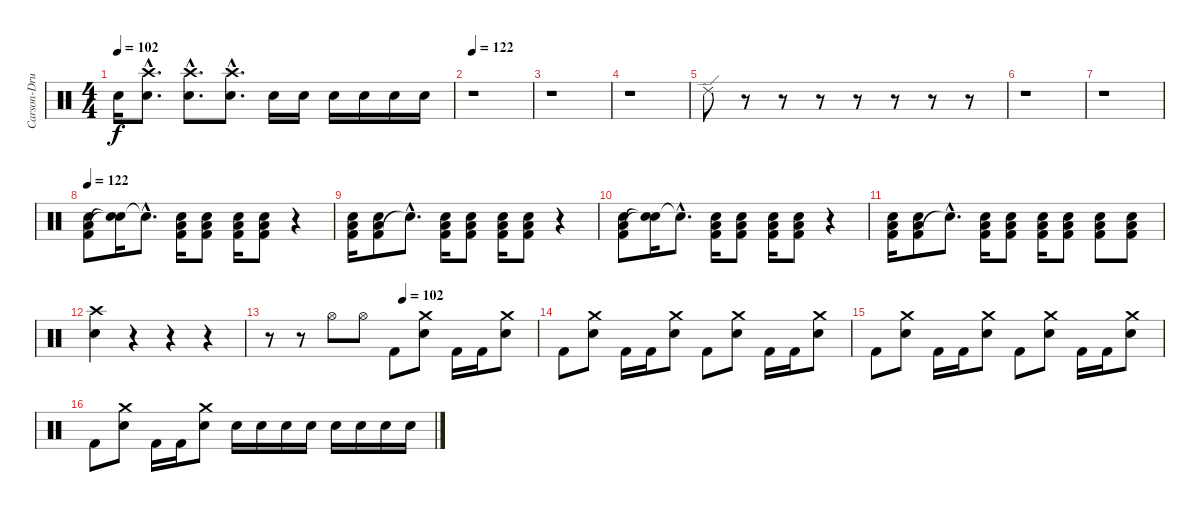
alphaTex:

\track ("Carson-Drums" "Carson-Dru") {instrument percussion}
\staff {score}
\articulation defaults
\ts (4 4)
\tempo 102
\clef neutral
\ks c "Snare (hit) 2".16{dy f}
("Crash high (hit)"{hac} "Snare (hit) 2"{hac}).8{d} ("Crash high (hit)"{hac} "Snare (hit) 2"{hac}).8{d} ("Crash high (hit)"{hac} "Snare (hit) 2"{hac}).8{d} "Snare (hit) 2".16 "Snare (hit) 2".16 "Snare (hit) 2".16 "Snare (hit) 2".16 "Snare (hit) 2".16 "Snare (hit) 2".16 |
\tempo 122
r.1 |
r.1 |
r.1 |
"Ride (edge) 2".8 r.8 r.8 r.8 r.8 r.8 r.8 r.8 |
r.1 |
r.1 |
\tempo 122
("Kick (hit) 2" "Low Floor Tom (hit)" "Snare (hit) 2").8 ("Snare (hit)"{t} "Snare (hit)"{t}).16 "Snare (hit)"{hac t}.8{d} ("Kick (hit) 2" "Low Floor Tom (hit)" "Snare (hit) 2").16 ("Kick (hit) 2" "Low Floor Tom (hit)" "Snare (hit) 2").8 ("Kick (hit) 2" "Low Floor Tom (hit)" "Snare (hit) 2").16 ("Kick (hit) 2" "Low Floor Tom (hit)" "Snare (hit) 2").8 r.4 |
("Kick (hit) 2" "Low Floor Tom (hit)" "Snare (hit) 2").16 ("Kick (hit) 2" "Low Floor Tom (hit)" "Snare (hit) 2").8 "Snare (hit)"{hac t}.8{d} ("Kick (hit) 2" "Low Floor Tom (hit)" "Snare (hit) 2").16 ("Kick (hit) 2" "Low Floor Tom (hit)" "Snare (hit) 2").8 ("Kick (hit) 2" "Low Floor Tom (hit)" "Snare (hit) 2").16 ("Kick (hit) 2" "Low Floor Tom (hit)" "Snare (hit) 2").8 r.4 |
("Kick (hit) 2" "Low Floor Tom (hit)" "Snare (hit) 2").8 ("Snare (hit)"{t} "Snare (hit)"{t}).16 "Snare (hit)"{hac t}.8{d} ("Kick (hit) 2" "Low Floor Tom (hit)" "Snare (hit) 2").16 ("Kick (hit) 2" "Low Floor Tom (hit)" "Snare (hit) 2").8 ("Kick (hit) 2" "Low Floor Tom (hit)" "Snare (hit) 2").16 ("Kick (hit) 2" "Low Floor Tom (hit)" "Snare (hit) 2").8 r.4 |
("Kick (hit) 2" "Low Floor Tom (hit)" "Snare (hit) 2").16 ("Kick (hit) 2" "Low Floor Tom (hit)" "Snare (hit) 2").8 "Snare (hit)"{hac t}.8{d} ("Kick (hit) 2" "Low Floor Tom (hit)" "Snare (hit) 2").16 ("Kick (hit) 2" "Low Floor Tom (hit)" "Snare (hit) 2").8 ("Kick (hit) 2" "Low Floor Tom (hit)" "Snare (hit) 2").16 ("Kick (hit) 2" "Low Floor Tom (hit)" "Snare (hit) 2").8 ("Kick (hit) 2" "Low Floor Tom (hit)" "Snare (hit) 2").8 ("Kick (hit) 2" "Low Floor Tom (hit)" "Snare (hit) 2").8 |
("Crash high (hit)" "Snare (hit) 2").4 r.4 r.4 r.4 |
\tempo (102 0.5)
r.8 r.8 "Hi-Hat (open)".8 "Hi-Hat (open)".8 "Kick (hit) 2".8 ("Crash medium (hit)" "Snare (hit) 2").8 "Kick (hit) 2".16 "Kick (hit) 2".16 ("Crash medium (hit)" "Snare (hit) 2").8 |
"Kick (hit) 2".8 ("Crash medium (hit)" "Snare (hit) 2").8 "Kick (hit) 2".16 "Kick (hit) 2".16 ("Crash medium (hit)" "Snare (hit) 2").8 "Kick (hit) 2".8 ("Crash medium (hit)" "Snare (hit) 2").8 "Kick (hit) 2".16 "Kick (hit) 2".16 ("Crash medium (hit)" "Snare (hit) 2").8 |
"Kick (hit) 2".8 ("Crash medium (hit)" "Snare (hit) 2").8 "Kick (hit) 2".16 "Kick (hit) 2".16 ("Crash medium (hit)" "Snare (hit) 2").8 "Kick (hit) 2".8 ("Crash medium (hit)" "Snare (hit) 2").8 "Kick (hit) 2".16 "Kick (hit) 2".16 ("Crash medium (hit)" "Snare (hit) 2").8 |
"Kick (hit) 2".8 ("Crash medium (hit)" "Snare (hit) 2").8 "Kick (hit) 2".16 "Kick (hit) 2".16 ("Crash medium (hit)" "Snare (hit) 2").8 "Snare (hit) 2".16 "Snare (hit) 2".16 "Snare (hit) 2".16 "Snare (hit) 2".16 "Snare (hit) 2".16 "Snare (hit) 2".16 "Snare (hit) 2".16 "Snare (hit) 2".16
